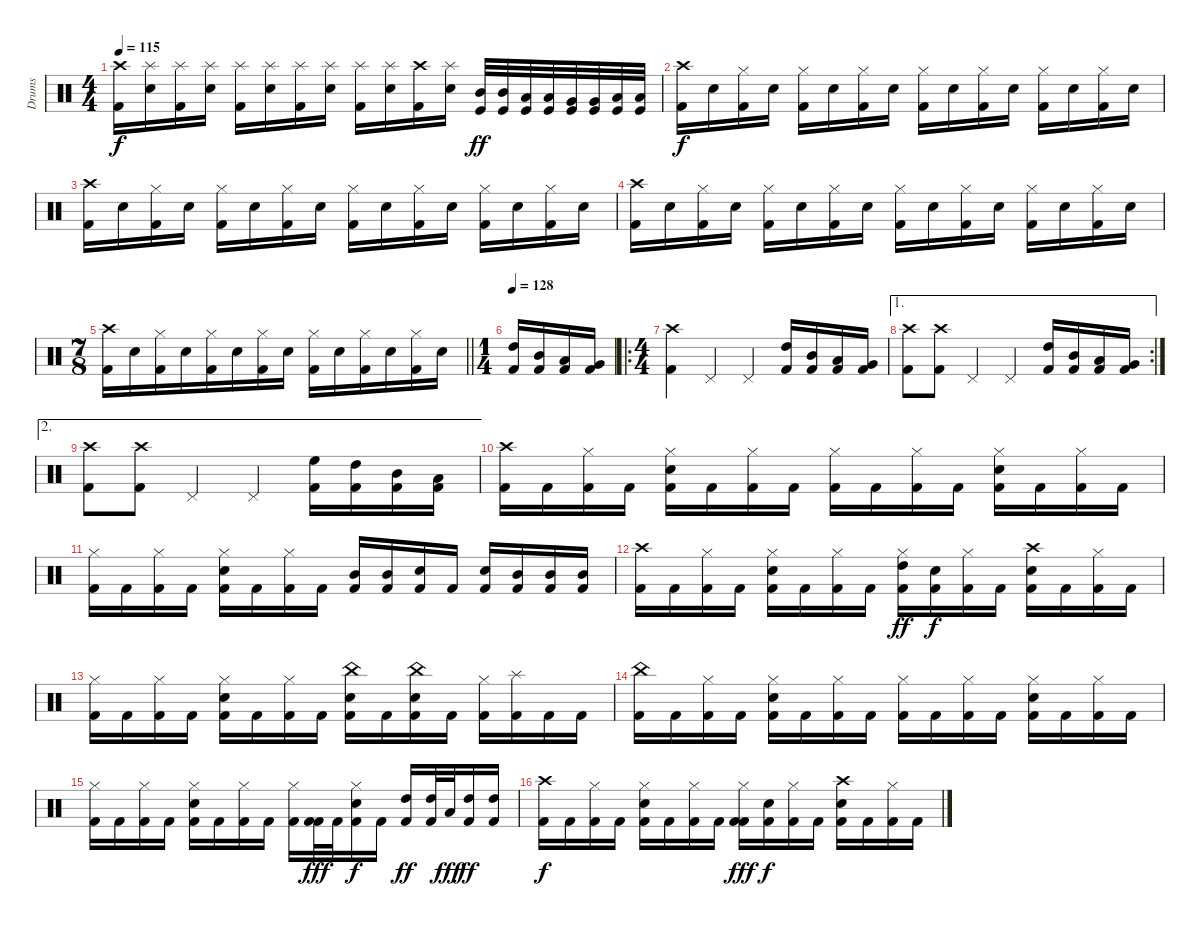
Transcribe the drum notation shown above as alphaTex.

\track ("Drums" "Drums") {instrument percussion}
\staff {score}
\articulation defaults
\ts (4 4)
\tempo 115
\clef neutral
\ks c
("Crash high (hit)" "Kick (hit) 2").16{dy f} ("Splash (hit)" "Electric Snare (hit)").16 ("Splash (hit)" "Kick (hit) 2").16 ("Splash (hit)" "Electric Snare (hit)").16 ("Splash (hit)" "Kick (hit) 2").16 ("Splash (hit)" "Electric Snare (hit)").16 ("Splash (hit)" "Kick (hit) 2").16 ("Splash (hit)" "Electric Snare (hit)").16 ("Splash (hit)" "Kick (hit) 2").16 ("Splash (hit)" "Electric Snare (hit)").16 ("Crash high (hit)" "Kick (hit) 2").16 ("Splash (hit)" "Electric Snare (hit)").16 ("Mid Tom (hit)" "Kick (hit)").32{dy ff} ("Mid Tom (hit)" "Kick (hit)").32 ("Low Tom (hit)" "Kick (hit)").32 ("Low Tom (hit)" "Kick (hit)").32 ("Very Low Tom (hit)" "Kick (hit)").32 ("Very Low Tom (hit)" "Kick (hit)").32 ("Low Floor Tom (hit)" "Kick (hit)").32 ("Low Floor Tom (hit)" "Kick (hit)").32 |
("Crash high (hit)" "Kick (hit) 2").16{dy f} "Electric Snare (hit)".16 ("Hi-Hat (closed)" "Kick (hit) 2").16 "Electric Snare (hit)".16 ("Hi-Hat (closed)" "Kick (hit) 2").16 "Electric Snare (hit)".16 ("Hi-Hat (closed)" "Kick (hit) 2").16 "Electric Snare (hit)".16 ("Hi-Hat (closed)" "Kick (hit) 2").16 "Electric Snare (hit)".16 ("Hi-Hat (closed)" "Kick (hit) 2").16 "Electric Snare (hit)".16 ("Hi-Hat (closed)" "Kick (hit) 2").16 "Electric Snare (hit)".16 ("Hi-Hat (closed)" "Kick (hit) 2").16 "Electric Snare (hit)".16 |
("Crash high (hit)" "Kick (hit) 2").16 "Electric Snare (hit)".16 ("Hi-Hat (closed)" "Kick (hit) 2").16 "Electric Snare (hit)".16 ("Hi-Hat (closed)" "Kick (hit) 2").16 "Electric Snare (hit)".16 ("Hi-Hat (closed)" "Kick (hit) 2").16 "Electric Snare (hit)".16 ("Hi-Hat (closed)" "Kick (hit) 2").16 "Electric Snare (hit)".16 ("Hi-Hat (closed)" "Kick (hit) 2").16 "Electric Snare (hit)".16 ("Hi-Hat (closed)" "Kick (hit) 2").16 "Electric Snare (hit)".16 ("Hi-Hat (closed)" "Kick (hit) 2").16 "Electric Snare (hit)".16 |
("Crash high (hit)" "Kick (hit) 2").16 "Electric Snare (hit)".16 ("Hi-Hat (closed)" "Kick (hit) 2").16 "Electric Snare (hit)".16 ("Hi-Hat (closed)" "Kick (hit) 2").16 "Electric Snare (hit)".16 ("Hi-Hat (closed)" "Kick (hit) 2").16 "Electric Snare (hit)".16 ("Hi-Hat (closed)" "Kick (hit) 2").16 "Electric Snare (hit)".16 ("Hi-Hat (closed)" "Kick (hit) 2").16 "Electric Snare (hit)".16 ("Hi-Hat (closed)" "Kick (hit) 2").16 "Electric Snare (hit)".16 ("Hi-Hat (closed)" "Kick (hit) 2").16 "Electric Snare (hit)".16 |
\ts (7 8)
\barLineRight lightlight
("Crash high (hit)" "Kick (hit) 2").16 "Electric Snare (hit)".16 ("Hi-Hat (closed)" "Kick (hit) 2").16 "Electric Snare (hit)".16 ("Hi-Hat (closed)" "Kick (hit) 2").16 "Electric Snare (hit)".16 ("Hi-Hat (closed)" "Kick (hit) 2").16 "Electric Snare (hit)".16 ("Hi-Hat (closed)" "Kick (hit) 2").16 "Electric Snare (hit)".16 ("Hi-Hat (closed)" "Kick (hit) 2").16 "Electric Snare (hit)".16 ("Hi-Hat (closed)" "Kick (hit) 2").16 "Electric Snare (hit)".16 |
\ts (1 4)
\tempo 128
("High Tom (hit)" "Kick (hit) 2").16 ("Mid Tom (hit)" "Kick (hit) 2").16 ("Low Tom (hit)" "Kick (hit) 2").16 ("Very Low Tom (hit)" "Kick (hit) 2").16 |
\ro
\ts (4 4)
("Crash high (hit)" "Kick (hit) 2").4 "Pedal Hi-Hat (hit)".4 "Pedal Hi-Hat (hit)".4 ("High Tom (hit)" "Kick (hit) 2").16 ("Mid Tom (hit)" "Kick (hit) 2").16 ("Low Tom (hit)" "Kick (hit) 2").16 ("Very Low Tom (hit)" "Kick (hit) 2").16 |
\ae 1
\rc 2
("Crash high (hit)" "Kick (hit) 2").8 ("Crash high (hit)" "Kick (hit) 2").8 "Pedal Hi-Hat (hit)".4 "Pedal Hi-Hat (hit)".4 ("High Tom (hit)" "Kick (hit) 2").16 ("Mid Tom (hit)" "Kick (hit) 2").16 ("Low Tom (hit)" "Kick (hit) 2").16 ("Very Low Tom (hit)" "Kick (hit) 2").16 |
\ae 2
("Crash high (hit)" "Kick (hit) 2").8 ("Crash high (hit)" "Kick (hit) 2").8 "Pedal Hi-Hat (hit)".4 "Pedal Hi-Hat (hit)".4 ("High Floor Tom (hit)" "Kick (hit) 2").16 ("High Tom (hit)" "Kick (hit) 2").16 ("Mid Tom (hit)" "Kick (hit) 2").16 ("Low Tom (hit)" "Kick (hit) 2").16 |
("Crash high (hit)" "Kick (hit) 2").16 "Kick (hit) 2".16 ("Hi-Hat (closed)" "Kick (hit) 2").16 "Kick (hit) 2".16 ("Hi-Hat (closed)" "Electric Snare (hit)" "Kick (hit) 2").16 "Kick (hit) 2".16 ("Hi-Hat (closed)" "Kick (hit) 2").16 "Kick (hit) 2".16 ("Hi-Hat (closed)" "Kick (hit) 2").16 "Kick (hit) 2".16 ("Hi-Hat (closed)" "Kick (hit) 2").16 "Kick (hit) 2".16 ("Hi-Hat (closed)" "Electric Snare (hit)" "Kick (hit) 2").16 "Kick (hit) 2".16 ("Hi-Hat (closed)" "Kick (hit) 2").16 "Kick (hit) 2".16 |
("Hi-Hat (closed)" "Kick (hit) 2").16 "Kick (hit) 2".16 ("Hi-Hat (closed)" "Kick (hit) 2").16 "Kick (hit) 2".16 ("Hi-Hat (closed)" "Electric Snare (hit)" "Kick (hit) 2").16 "Kick (hit) 2".16 ("Hi-Hat (closed)" "Kick (hit) 2").16 "Kick (hit) 2".16 ("Mid Tom (hit)" "Kick (hit) 2").16 ("Mid Tom (hit)" "Kick (hit) 2").16 ("Electric Snare (hit)" "Kick (hit) 2").16 "Kick (hit) 2".16 ("Electric Snare (hit)" "Kick (hit) 2").16 ("Mid Tom (hit)" "Kick (hit) 2").16 ("Mid Tom (hit)" "Kick (hit) 2").16 ("Mid Tom (hit)" "Kick (hit) 2").16 |
("Crash high (hit)" "Kick (hit) 2").16 "Kick (hit) 2".16 ("Hi-Hat (closed)" "Kick (hit) 2").16 "Kick (hit) 2".16 ("Hi-Hat (closed)" "Electric Snare (hit)" "Kick (hit) 2").16 "Kick (hit) 2".16 ("Hi-Hat (closed)" "Kick (hit) 2").16 "Kick (hit) 2".16 ("Hi-Hat (closed)" "High Tom (hit)" "Kick (hit) 2").16{dy ff} ("Electric Snare (hit)" "Kick (hit) 2").16{dy f} ("Hi-Hat (closed)" "Kick (hit) 2").16 "Kick (hit) 2".16 ("Crash high (hit)" "Electric Snare (hit)" "Kick (hit) 2").16 "Kick (hit) 2".16 ("Hi-Hat (closed)" "Kick (hit) 2").16 "Kick (hit) 2".16 |
("Hi-Hat (closed)" "Kick (hit) 2").16 "Kick (hit) 2".16 ("Hi-Hat (closed)" "Kick (hit) 2").16 "Kick (hit) 2".16 ("Hi-Hat (closed)" "Electric Snare (hit)" "Kick (hit) 2").16 "Kick (hit) 2".16 ("Hi-Hat (closed)" "Kick (hit) 2").16 "Kick (hit) 2".16 ("China (hit)" "Electric Snare (hit)" "Kick (hit) 2").16 "Kick (hit) 2".16 ("China (hit)" "Electric Snare (hit)" "Kick (hit) 2").16 "Kick (hit) 2".16 ("Hi-Hat (closed)" "Kick (hit) 2").16 ("Splash (hit)" "Kick (hit) 2").16 "Kick (hit) 2".16 "Kick (hit) 2".16 |
("China (hit)" "Kick (hit) 2").16 "Kick (hit) 2".16 ("Hi-Hat (closed)" "Kick (hit) 2").16 "Kick (hit) 2".16 ("Hi-Hat (closed)" "Electric Snare (hit)" "Kick (hit) 2").16 "Kick (hit) 2".16 ("Hi-Hat (closed)" "Kick (hit) 2").16 "Kick (hit) 2".16 ("Hi-Hat (closed)" "Kick (hit) 2").16 "Kick (hit) 2".16 ("Hi-Hat (closed)" "Kick (hit) 2").16 "Kick (hit) 2".16 ("Hi-Hat (closed)" "Electric Snare (hit)" "Kick (hit) 2").16 "Kick (hit) 2".16 ("Hi-Hat (closed)" "Kick (hit) 2").16 "Kick (hit) 2".16 |
("Hi-Hat (closed)" "Kick (hit) 2").16 "Kick (hit) 2".16 ("Hi-Hat (closed)" "Kick (hit) 2").16 "Kick (hit) 2".16 ("Hi-Hat (closed)" "Electric Snare (hit)" "Kick (hit) 2").16 "Kick (hit) 2".16 ("Hi-Hat (closed)" "Kick (hit) 2").16 "Kick (hit) 2".16 ("Hi-Hat (closed)" "Kick (hit) 2").16 ("Kick (hit) 2" "Kick (hit) 2").32{dy fff} "Kick (hit) 2".32 ("Hi-Hat (closed)" "Electric Snare (hit)" "Kick (hit) 2").16{dy f} "Kick (hit) 2".16 ("High Tom (hit)" "Kick (hit) 2").16{dy ff} ("High Tom (hit)" "Kick (hit) 2").32 "Low Tom (hit)".32{dy fff} ("High Tom (hit)" "Kick (hit) 2").16{dy ff} ("High Tom (hit)" "Kick (hit) 2").16 |
("Crash high (hit)" "Kick (hit) 2").16{dy f} "Kick (hit) 2".16 ("Hi-Hat (closed)" "Kick (hit) 2").16 "Kick (hit) 2".16 ("Hi-Hat (closed)" "Electric Snare (hit)" "Kick (hit) 2").16 "Kick (hit) 2".16 ("Hi-Hat (closed)" "Kick (hit) 2").16 "Kick (hit) 2".16 ("Hi-Hat (closed)" "Kick (hit) 2" "Kick (hit) 2").16{dy fff} ("Electric Snare (hit)" "Kick (hit) 2").16{dy f} ("Hi-Hat (closed)" "Kick (hit) 2").16 "Kick (hit) 2".16 ("Crash high (hit)" "Electric Snare (hit)" "Kick (hit) 2").16 "Kick (hit) 2".16 ("Hi-Hat (closed)" "Kick (hit) 2").16 "Kick (hit) 2".16
